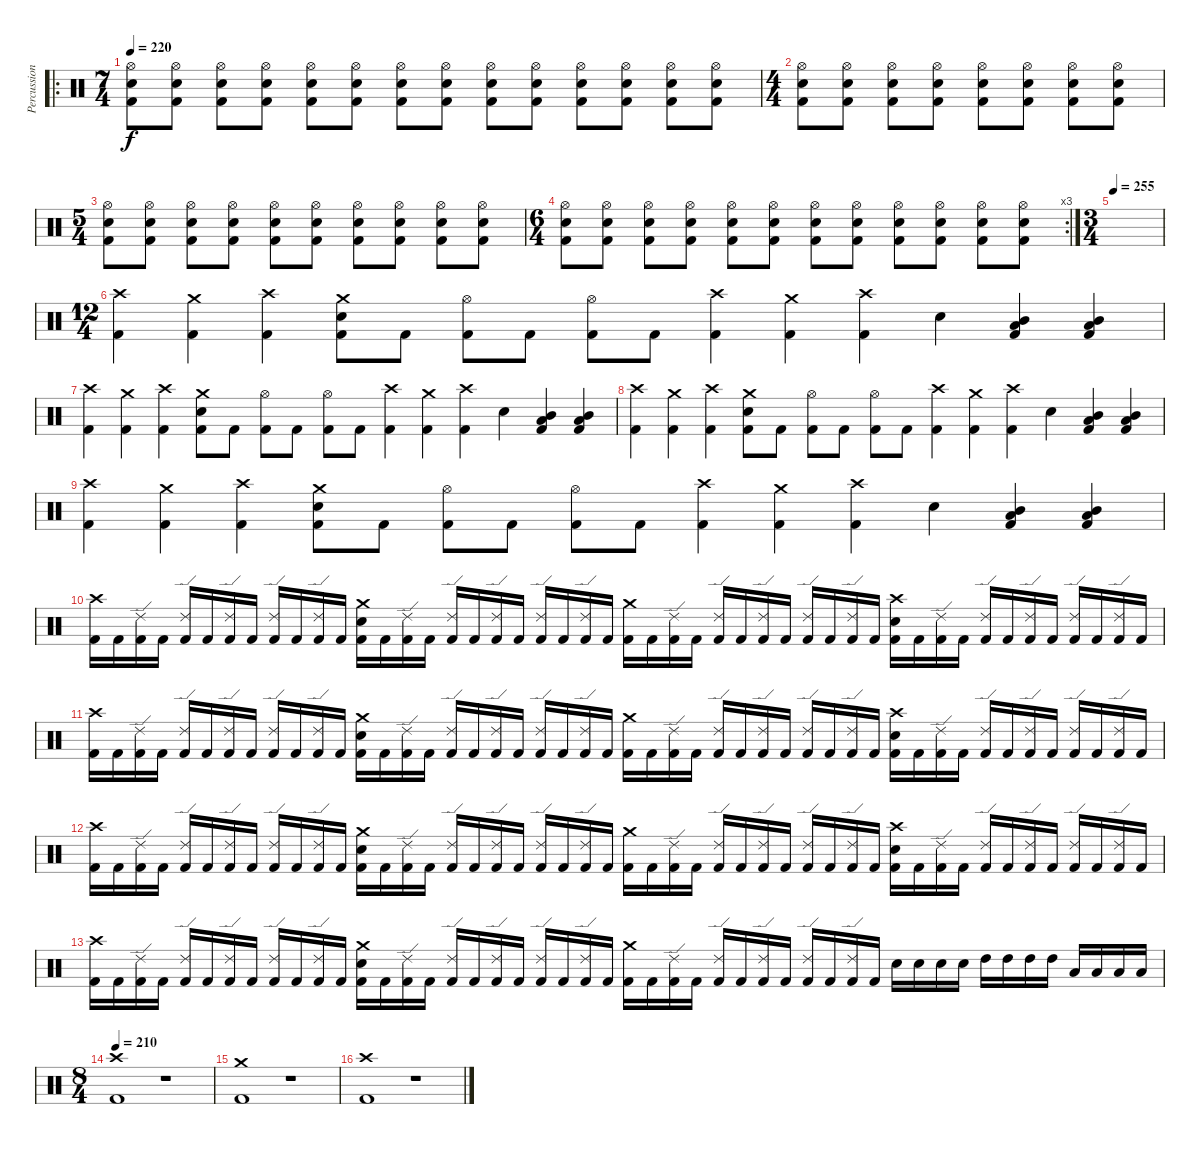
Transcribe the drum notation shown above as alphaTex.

\track ("Percussion" "Percussion") {mute instrument percussion}
\staff {score}
\articulation defaults
\ro
\ts (7 4)
\tempo 220
\clef neutral
\ks c
("Kick (hit) 2" "Electric Snare (hit)" "Hi-Hat (open)").8{dy f} ("Kick (hit) 2" "Electric Snare (hit)" "Hi-Hat (open)").8 ("Kick (hit) 2" "Electric Snare (hit)" "Hi-Hat (open)").8 ("Kick (hit) 2" "Electric Snare (hit)" "Hi-Hat (open)").8 ("Kick (hit) 2" "Electric Snare (hit)" "Hi-Hat (open)").8 ("Kick (hit) 2" "Electric Snare (hit)" "Hi-Hat (open)").8 ("Kick (hit) 2" "Electric Snare (hit)" "Hi-Hat (open)").8 ("Kick (hit) 2" "Electric Snare (hit)" "Hi-Hat (open)").8 ("Kick (hit) 2" "Electric Snare (hit)" "Hi-Hat (open)").8 ("Kick (hit) 2" "Electric Snare (hit)" "Hi-Hat (open)").8 ("Kick (hit) 2" "Electric Snare (hit)" "Hi-Hat (open)").8 ("Kick (hit) 2" "Electric Snare (hit)" "Hi-Hat (open)").8 ("Kick (hit) 2" "Electric Snare (hit)" "Hi-Hat (open)").8 ("Kick (hit) 2" "Electric Snare (hit)" "Hi-Hat (open)").8 |
\ts (4 4)
("Kick (hit) 2" "Electric Snare (hit)" "Hi-Hat (open)").8 ("Kick (hit) 2" "Electric Snare (hit)" "Hi-Hat (open)").8 ("Kick (hit) 2" "Electric Snare (hit)" "Hi-Hat (open)").8 ("Kick (hit) 2" "Electric Snare (hit)" "Hi-Hat (open)").8 ("Kick (hit) 2" "Electric Snare (hit)" "Hi-Hat (open)").8 ("Kick (hit) 2" "Electric Snare (hit)" "Hi-Hat (open)").8 ("Kick (hit) 2" "Electric Snare (hit)" "Hi-Hat (open)").8 ("Kick (hit) 2" "Electric Snare (hit)" "Hi-Hat (open)").8 |
\ts (5 4)
("Kick (hit) 2" "Electric Snare (hit)" "Hi-Hat (open)").8 ("Kick (hit) 2" "Electric Snare (hit)" "Hi-Hat (open)").8 ("Kick (hit) 2" "Electric Snare (hit)" "Hi-Hat (open)").8 ("Kick (hit) 2" "Electric Snare (hit)" "Hi-Hat (open)").8 ("Kick (hit) 2" "Electric Snare (hit)" "Hi-Hat (open)").8 ("Kick (hit) 2" "Electric Snare (hit)" "Hi-Hat (open)").8 ("Kick (hit) 2" "Electric Snare (hit)" "Hi-Hat (open)").8 ("Kick (hit) 2" "Electric Snare (hit)" "Hi-Hat (open)").8 ("Kick (hit) 2" "Electric Snare (hit)" "Hi-Hat (open)").8 ("Kick (hit) 2" "Electric Snare (hit)" "Hi-Hat (open)").8 |
\rc 3
\ts (6 4)
("Kick (hit) 2" "Electric Snare (hit)" "Hi-Hat (open)").8 ("Kick (hit) 2" "Electric Snare (hit)" "Hi-Hat (open)").8 ("Kick (hit) 2" "Electric Snare (hit)" "Hi-Hat (open)").8 ("Kick (hit) 2" "Electric Snare (hit)" "Hi-Hat (open)").8 ("Kick (hit) 2" "Electric Snare (hit)" "Hi-Hat (open)").8 ("Kick (hit) 2" "Electric Snare (hit)" "Hi-Hat (open)").8 ("Kick (hit) 2" "Electric Snare (hit)" "Hi-Hat (open)").8 ("Kick (hit) 2" "Electric Snare (hit)" "Hi-Hat (open)").8 ("Kick (hit) 2" "Electric Snare (hit)" "Hi-Hat (open)").8 ("Kick (hit) 2" "Electric Snare (hit)" "Hi-Hat (open)").8 ("Kick (hit) 2" "Electric Snare (hit)" "Hi-Hat (open)").8 ("Kick (hit) 2" "Electric Snare (hit)" "Hi-Hat (open)").8 |
\ts (3 4)
\tempo 255
|
\ts (12 4)
("Kick (hit) 2" "Crash high (hit)").4 ("Kick (hit) 2" "Crash medium (hit)").4 ("Kick (hit) 2" "Crash high (hit)").4 ("Kick (hit) 2" "Electric Snare (hit)" "Crash medium (hit)").8 "Kick (hit) 2".8 ("Kick (hit) 2" "Hi-Hat (open)").8 "Kick (hit) 2".8 ("Kick (hit) 2" "Hi-Hat (open)").8 "Kick (hit) 2".8 ("Kick (hit) 2" "Crash high (hit)").4 ("Kick (hit) 2" "Crash medium (hit)").4 ("Kick (hit) 2" "Crash high (hit)").4 "Electric Snare (hit)".4 ("Kick (hit) 2" "Low Tom (hit)" "Mid Tom (hit)").4 ("Kick (hit) 2" "Low Tom (hit)" "Mid Tom (hit)").4 |
("Kick (hit) 2" "Crash high (hit)").4 ("Kick (hit) 2" "Crash medium (hit)").4 ("Kick (hit) 2" "Crash high (hit)").4 ("Kick (hit) 2" "Electric Snare (hit)" "Crash medium (hit)").8 "Kick (hit) 2".8 ("Kick (hit) 2" "Hi-Hat (open)").8 "Kick (hit) 2".8 ("Kick (hit) 2" "Hi-Hat (open)").8 "Kick (hit) 2".8 ("Kick (hit) 2" "Crash high (hit)").4 ("Kick (hit) 2" "Crash medium (hit)").4 ("Kick (hit) 2" "Crash high (hit)").4 "Electric Snare (hit)".4 ("Kick (hit) 2" "Low Tom (hit)" "Mid Tom (hit)").4 ("Kick (hit) 2" "Low Tom (hit)" "Mid Tom (hit)").4 |
("Kick (hit) 2" "Crash high (hit)").4 ("Kick (hit) 2" "Crash medium (hit)").4 ("Kick (hit) 2" "Crash high (hit)").4 ("Kick (hit) 2" "Electric Snare (hit)" "Crash medium (hit)").8 "Kick (hit) 2".8 ("Kick (hit) 2" "Hi-Hat (open)").8 "Kick (hit) 2".8 ("Kick (hit) 2" "Hi-Hat (open)").8 "Kick (hit) 2".8 ("Kick (hit) 2" "Crash high (hit)").4 ("Kick (hit) 2" "Crash medium (hit)").4 ("Kick (hit) 2" "Crash high (hit)").4 "Electric Snare (hit)".4 ("Kick (hit) 2" "Low Tom (hit)" "Mid Tom (hit)").4 ("Kick (hit) 2" "Low Tom (hit)" "Mid Tom (hit)").4 |
("Kick (hit) 2" "Crash high (hit)").4 ("Kick (hit) 2" "Crash medium (hit)").4 ("Kick (hit) 2" "Crash high (hit)").4 ("Kick (hit) 2" "Electric Snare (hit)" "Crash medium (hit)").8 "Kick (hit) 2".8 ("Kick (hit) 2" "Hi-Hat (open)").8 "Kick (hit) 2".8 ("Kick (hit) 2" "Hi-Hat (open)").8 "Kick (hit) 2".8 ("Kick (hit) 2" "Crash high (hit)").4 ("Kick (hit) 2" "Crash medium (hit)").4 ("Kick (hit) 2" "Crash high (hit)").4 "Electric Snare (hit)".4 ("Kick (hit) 2" "Low Tom (hit)" "Mid Tom (hit)").4 ("Kick (hit) 2" "Low Tom (hit)" "Mid Tom (hit)").4 |
("Kick (hit) 2" "Crash high (hit)").16 "Kick (hit) 2".16 ("Kick (hit) 2" "Ride (edge) 2").16 "Kick (hit) 2".16 ("Kick (hit) 2" "Ride (edge) 2").16 "Kick (hit) 2".16 ("Kick (hit) 2" "Ride (edge) 2").16 "Kick (hit) 2".16 ("Kick (hit) 2" "Ride (edge) 2").16 "Kick (hit) 2".16 ("Kick (hit) 2" "Ride (edge) 2").16 "Kick (hit) 2".16 ("Kick (hit) 2" "Electric Snare (hit)" "Crash medium (hit)").16 "Kick (hit) 2".16 ("Kick (hit) 2" "Ride (edge) 2").16 "Kick (hit) 2".16 ("Kick (hit) 2" "Ride (edge) 2").16 "Kick (hit) 2".16 ("Kick (hit) 2" "Ride (edge) 2").16 "Kick (hit) 2".16 ("Kick (hit) 2" "Ride (edge) 2").16 "Kick (hit) 2".16 ("Kick (hit) 2" "Ride (edge) 2").16 "Kick (hit) 2".16 ("Kick (hit) 2" "Crash medium (hit)").16 "Kick (hit) 2".16 ("Kick (hit) 2" "Ride (edge) 2").16 "Kick (hit) 2".16 ("Kick (hit) 2" "Ride (edge) 2").16 "Kick (hit) 2".16 ("Kick (hit) 2" "Ride (edge) 2").16 "Kick (hit) 2".16 ("Kick (hit) 2" "Ride (edge) 2").16 "Kick (hit) 2".16 ("Kick (hit) 2" "Ride (edge) 2").16 "Kick (hit) 2".16 ("Kick (hit) 2" "Electric Snare (hit)" "Crash high (hit)").16 "Kick (hit) 2".16 ("Kick (hit) 2" "Ride (edge) 2").16 "Kick (hit) 2".16 ("Kick (hit) 2" "Ride (edge) 2").16 "Kick (hit) 2".16 ("Kick (hit) 2" "Ride (edge) 2").16 "Kick (hit) 2".16 ("Kick (hit) 2" "Ride (edge) 2").16 "Kick (hit) 2".16 ("Kick (hit) 2" "Ride (edge) 2").16 "Kick (hit) 2".16 |
("Kick (hit) 2" "Crash high (hit)").16 "Kick (hit) 2".16 ("Kick (hit) 2" "Ride (edge) 2").16 "Kick (hit) 2".16 ("Kick (hit) 2" "Ride (edge) 2").16 "Kick (hit) 2".16 ("Kick (hit) 2" "Ride (edge) 2").16 "Kick (hit) 2".16 ("Kick (hit) 2" "Ride (edge) 2").16 "Kick (hit) 2".16 ("Kick (hit) 2" "Ride (edge) 2").16 "Kick (hit) 2".16 ("Kick (hit) 2" "Electric Snare (hit)" "Crash medium (hit)").16 "Kick (hit) 2".16 ("Kick (hit) 2" "Ride (edge) 2").16 "Kick (hit) 2".16 ("Kick (hit) 2" "Ride (edge) 2").16 "Kick (hit) 2".16 ("Kick (hit) 2" "Ride (edge) 2").16 "Kick (hit) 2".16 ("Kick (hit) 2" "Ride (edge) 2").16 "Kick (hit) 2".16 ("Kick (hit) 2" "Ride (edge) 2").16 "Kick (hit) 2".16 ("Kick (hit) 2" "Crash medium (hit)").16 "Kick (hit) 2".16 ("Kick (hit) 2" "Ride (edge) 2").16 "Kick (hit) 2".16 ("Kick (hit) 2" "Ride (edge) 2").16 "Kick (hit) 2".16 ("Kick (hit) 2" "Ride (edge) 2").16 "Kick (hit) 2".16 ("Kick (hit) 2" "Ride (edge) 2").16 "Kick (hit) 2".16 ("Kick (hit) 2" "Ride (edge) 2").16 "Kick (hit) 2".16 ("Kick (hit) 2" "Electric Snare (hit)" "Crash high (hit)").16 "Kick (hit) 2".16 ("Kick (hit) 2" "Ride (edge) 2").16 "Kick (hit) 2".16 ("Kick (hit) 2" "Ride (edge) 2").16 "Kick (hit) 2".16 ("Kick (hit) 2" "Ride (edge) 2").16 "Kick (hit) 2".16 ("Kick (hit) 2" "Ride (edge) 2").16 "Kick (hit) 2".16 ("Kick (hit) 2" "Ride (edge) 2").16 "Kick (hit) 2".16 |
("Kick (hit) 2" "Crash high (hit)").16 "Kick (hit) 2".16 ("Kick (hit) 2" "Ride (edge) 2").16 "Kick (hit) 2".16 ("Kick (hit) 2" "Ride (edge) 2").16 "Kick (hit) 2".16 ("Kick (hit) 2" "Ride (edge) 2").16 "Kick (hit) 2".16 ("Kick (hit) 2" "Ride (edge) 2").16 "Kick (hit) 2".16 ("Kick (hit) 2" "Ride (edge) 2").16 "Kick (hit) 2".16 ("Kick (hit) 2" "Electric Snare (hit)" "Crash medium (hit)").16 "Kick (hit) 2".16 ("Kick (hit) 2" "Ride (edge) 2").16 "Kick (hit) 2".16 ("Kick (hit) 2" "Ride (edge) 2").16 "Kick (hit) 2".16 ("Kick (hit) 2" "Ride (edge) 2").16 "Kick (hit) 2".16 ("Kick (hit) 2" "Ride (edge) 2").16 "Kick (hit) 2".16 ("Kick (hit) 2" "Ride (edge) 2").16 "Kick (hit) 2".16 ("Kick (hit) 2" "Crash medium (hit)").16 "Kick (hit) 2".16 ("Kick (hit) 2" "Ride (edge) 2").16 "Kick (hit) 2".16 ("Kick (hit) 2" "Ride (edge) 2").16 "Kick (hit) 2".16 ("Kick (hit) 2" "Ride (edge) 2").16 "Kick (hit) 2".16 ("Kick (hit) 2" "Ride (edge) 2").16 "Kick (hit) 2".16 ("Kick (hit) 2" "Ride (edge) 2").16 "Kick (hit) 2".16 ("Kick (hit) 2" "Electric Snare (hit)" "Crash high (hit)").16 "Kick (hit) 2".16 ("Kick (hit) 2" "Ride (edge) 2").16 "Kick (hit) 2".16 ("Kick (hit) 2" "Ride (edge) 2").16 "Kick (hit) 2".16 ("Kick (hit) 2" "Ride (edge) 2").16 "Kick (hit) 2".16 ("Kick (hit) 2" "Ride (edge) 2").16 "Kick (hit) 2".16 ("Kick (hit) 2" "Ride (edge) 2").16 "Kick (hit) 2".16 |
("Kick (hit) 2" "Crash high (hit)").16 "Kick (hit) 2".16 ("Kick (hit) 2" "Ride (edge) 2").16 "Kick (hit) 2".16 ("Kick (hit) 2" "Ride (edge) 2").16 "Kick (hit) 2".16 ("Kick (hit) 2" "Ride (edge) 2").16 "Kick (hit) 2".16 ("Kick (hit) 2" "Ride (edge) 2").16 "Kick (hit) 2".16 ("Kick (hit) 2" "Ride (edge) 2").16 "Kick (hit) 2".16 ("Kick (hit) 2" "Electric Snare (hit)" "Crash medium (hit)").16 "Kick (hit) 2".16 ("Kick (hit) 2" "Ride (edge) 2").16 "Kick (hit) 2".16 ("Kick (hit) 2" "Ride (edge) 2").16 "Kick (hit) 2".16 ("Kick (hit) 2" "Ride (edge) 2").16 "Kick (hit) 2".16 ("Kick (hit) 2" "Ride (edge) 2").16 "Kick (hit) 2".16 ("Kick (hit) 2" "Ride (edge) 2").16 "Kick (hit) 2".16 ("Kick (hit) 2" "Crash medium (hit)").16 "Kick (hit) 2".16 ("Kick (hit) 2" "Ride (edge) 2").16 "Kick (hit) 2".16 ("Kick (hit) 2" "Ride (edge) 2").16 "Kick (hit) 2".16 ("Kick (hit) 2" "Ride (edge) 2").16 "Kick (hit) 2".16 ("Kick (hit) 2" "Ride (edge) 2").16 "Kick (hit) 2".16 ("Kick (hit) 2" "Ride (edge) 2").16 "Kick (hit) 2".16 "Electric Snare (hit)".16 "Electric Snare (hit)".16 "Electric Snare (hit)".16 "Electric Snare (hit)".16 "High Tom (hit)".16 "High Tom (hit)".16 "High Tom (hit)".16 "High Tom (hit)".16 "Low Tom (hit)".16 "Low Tom (hit)".16 "Low Tom (hit)".16 "Low Tom (hit)".16 |
\ts (8 4)
\tempo 210
("Kick (hit) 2" "Crash high (hit)").1 r.1 |
("Kick (hit) 2" "Crash medium (hit)").1 r.1 |
("Kick (hit) 2" "Crash high (hit)").1 r.1
